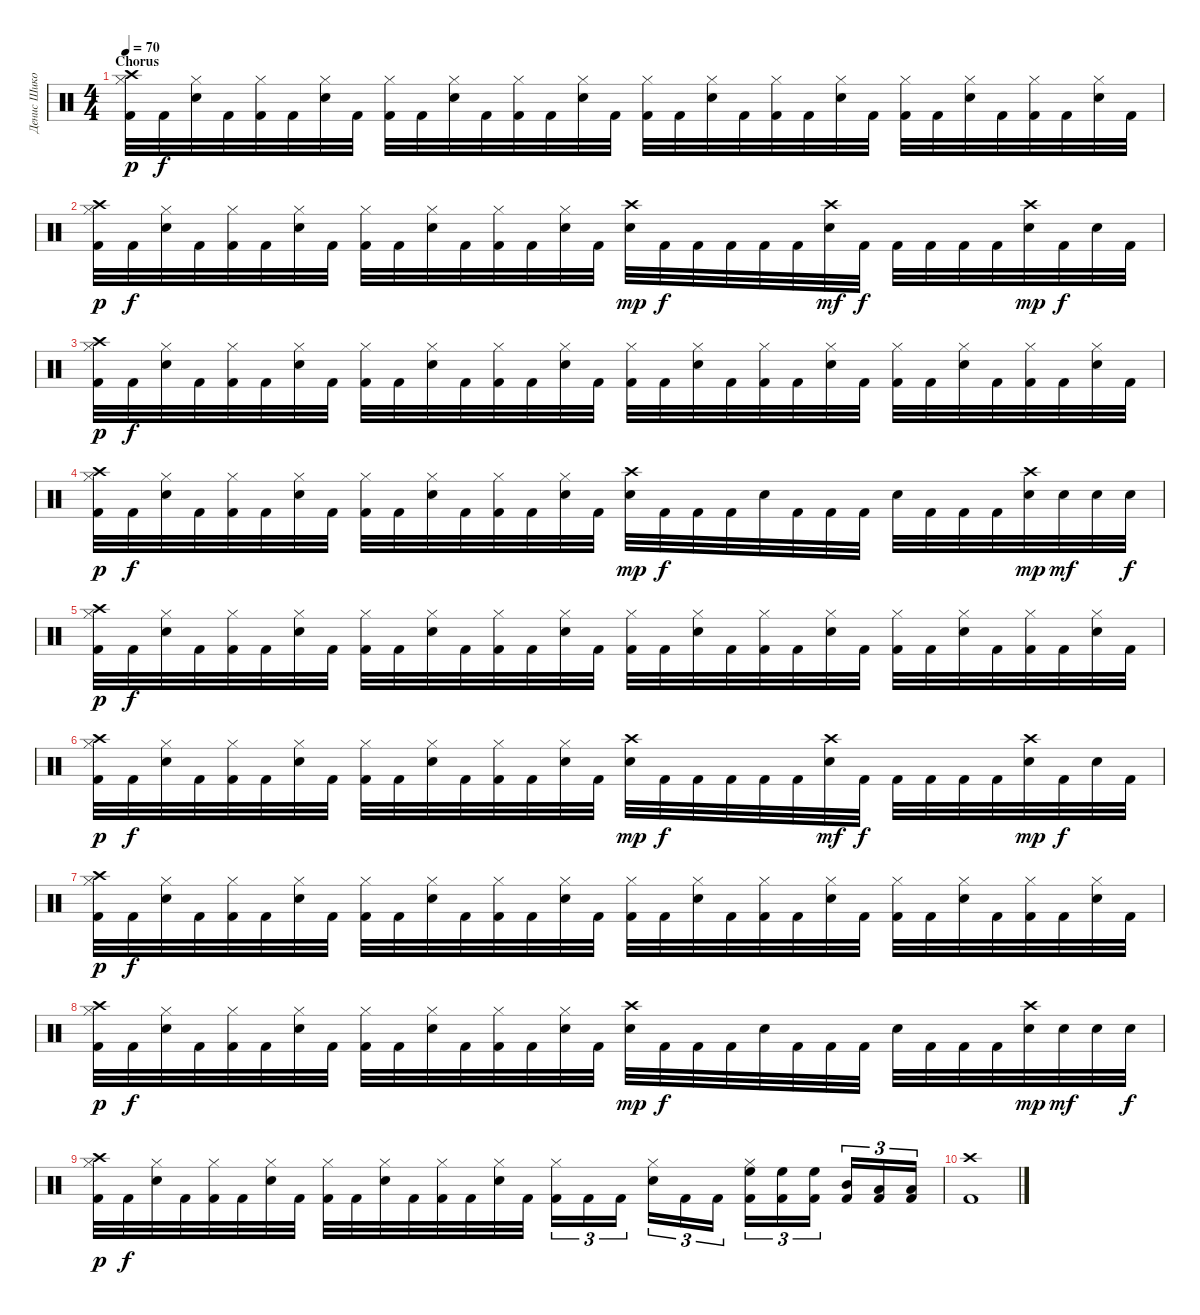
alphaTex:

\track ("Денис Шиков" "Денис Шико") {instrument percussion}
\staff {score}
\articulation defaults
\ts (4 4)
\section ("" "Chorus")
\tempo 70
\clef neutral
\ks c
("Crash high (hit)" "Hi-Hat (closed)" "Kick (hit) 2").32{dy p} "Kick (hit) 2".32{dy f} ("Hi-Hat (closed)" "Electric Snare (hit)").32 "Kick (hit) 2".32 ("Hi-Hat (closed)" "Kick (hit) 2").32 "Kick (hit) 2".32 ("Hi-Hat (closed)" "Electric Snare (hit)").32 "Kick (hit) 2".32 ("Hi-Hat (closed)" "Kick (hit) 2").32 "Kick (hit) 2".32 ("Hi-Hat (closed)" "Electric Snare (hit)").32 "Kick (hit) 2".32 ("Hi-Hat (closed)" "Kick (hit) 2").32 "Kick (hit) 2".32 ("Hi-Hat (closed)" "Electric Snare (hit)").32 "Kick (hit) 2".32 ("Hi-Hat (closed)" "Kick (hit) 2").32 "Kick (hit) 2".32 ("Hi-Hat (closed)" "Electric Snare (hit)").32 "Kick (hit) 2".32 ("Hi-Hat (closed)" "Kick (hit) 2").32 "Kick (hit) 2".32 ("Hi-Hat (closed)" "Electric Snare (hit)").32 "Kick (hit) 2".32 ("Hi-Hat (closed)" "Kick (hit) 2").32 "Kick (hit) 2".32 ("Hi-Hat (closed)" "Electric Snare (hit)").32 "Kick (hit) 2".32 ("Hi-Hat (closed)" "Kick (hit) 2").32 "Kick (hit) 2".32 ("Hi-Hat (closed)" "Electric Snare (hit)").32 "Kick (hit) 2".32 |
("Crash high (hit)" "Hi-Hat (closed)" "Kick (hit) 2").32{dy p} "Kick (hit) 2".32{dy f} ("Hi-Hat (closed)" "Electric Snare (hit)").32 "Kick (hit) 2".32 ("Hi-Hat (closed)" "Kick (hit) 2").32 "Kick (hit) 2".32 ("Hi-Hat (closed)" "Electric Snare (hit)").32 "Kick (hit) 2".32 ("Hi-Hat (closed)" "Kick (hit) 2").32 "Kick (hit) 2".32 ("Hi-Hat (closed)" "Electric Snare (hit)").32 "Kick (hit) 2".32 ("Hi-Hat (closed)" "Kick (hit) 2").32 "Kick (hit) 2".32 ("Hi-Hat (closed)" "Electric Snare (hit)").32 "Kick (hit) 2".32 ("Crash high (hit)" "Electric Snare (hit)").32{dy mp} "Kick (hit) 2".32{dy f} "Kick (hit) 2".32 "Kick (hit) 2".32 "Kick (hit) 2".32 "Kick (hit) 2".32 ("Crash high (hit)" "Electric Snare (hit)").32{dy mf} "Kick (hit) 2".32{dy f} "Kick (hit) 2".32 "Kick (hit) 2".32 "Kick (hit) 2".32 "Kick (hit) 2".32 ("Crash high (hit)" "Electric Snare (hit)").32{dy mp} "Kick (hit) 2".32{dy f} "Electric Snare (hit)".32 "Kick (hit) 2".32 |
("Crash high (hit)" "Hi-Hat (closed)" "Kick (hit) 2").32{dy p} "Kick (hit) 2".32{dy f} ("Hi-Hat (closed)" "Electric Snare (hit)").32 "Kick (hit) 2".32 ("Hi-Hat (closed)" "Kick (hit) 2").32 "Kick (hit) 2".32 ("Hi-Hat (closed)" "Electric Snare (hit)").32 "Kick (hit) 2".32 ("Hi-Hat (closed)" "Kick (hit) 2").32 "Kick (hit) 2".32 ("Hi-Hat (closed)" "Electric Snare (hit)").32 "Kick (hit) 2".32 ("Hi-Hat (closed)" "Kick (hit) 2").32 "Kick (hit) 2".32 ("Hi-Hat (closed)" "Electric Snare (hit)").32 "Kick (hit) 2".32 ("Hi-Hat (closed)" "Kick (hit) 2").32 "Kick (hit) 2".32 ("Hi-Hat (closed)" "Electric Snare (hit)").32 "Kick (hit) 2".32 ("Hi-Hat (closed)" "Kick (hit) 2").32 "Kick (hit) 2".32 ("Hi-Hat (closed)" "Electric Snare (hit)").32 "Kick (hit) 2".32 ("Hi-Hat (closed)" "Kick (hit) 2").32 "Kick (hit) 2".32 ("Hi-Hat (closed)" "Electric Snare (hit)").32 "Kick (hit) 2".32 ("Hi-Hat (closed)" "Kick (hit) 2").32 "Kick (hit) 2".32 ("Hi-Hat (closed)" "Electric Snare (hit)").32 "Kick (hit) 2".32 |
("Crash high (hit)" "Hi-Hat (closed)" "Kick (hit) 2").32{dy p} "Kick (hit) 2".32{dy f} ("Hi-Hat (closed)" "Electric Snare (hit)").32 "Kick (hit) 2".32 ("Hi-Hat (closed)" "Kick (hit) 2").32 "Kick (hit) 2".32 ("Hi-Hat (closed)" "Electric Snare (hit)").32 "Kick (hit) 2".32 ("Hi-Hat (closed)" "Kick (hit) 2").32 "Kick (hit) 2".32 ("Hi-Hat (closed)" "Electric Snare (hit)").32 "Kick (hit) 2".32 ("Hi-Hat (closed)" "Kick (hit) 2").32 "Kick (hit) 2".32 ("Hi-Hat (closed)" "Electric Snare (hit)").32 "Kick (hit) 2".32 ("Crash high (hit)" "Electric Snare (hit)").32{dy mp} "Kick (hit) 2".32{dy f} "Kick (hit) 2".32 "Kick (hit) 2".32 "Electric Snare (hit)".32 "Kick (hit) 2".32 "Kick (hit) 2".32 "Kick (hit) 2".32 "Electric Snare (hit)".32 "Kick (hit) 2".32 "Kick (hit) 2".32 "Kick (hit) 2".32 ("Crash high (hit)" "Electric Snare (hit)").32{dy mp} "Electric Snare (hit)".32{dy mf} "Electric Snare (hit)".32 "Electric Snare (hit)".32{dy f} |
("Crash high (hit)" "Hi-Hat (closed)" "Kick (hit) 2").32{dy p} "Kick (hit) 2".32{dy f} ("Hi-Hat (closed)" "Electric Snare (hit)").32 "Kick (hit) 2".32 ("Hi-Hat (closed)" "Kick (hit) 2").32 "Kick (hit) 2".32 ("Hi-Hat (closed)" "Electric Snare (hit)").32 "Kick (hit) 2".32 ("Hi-Hat (closed)" "Kick (hit) 2").32 "Kick (hit) 2".32 ("Hi-Hat (closed)" "Electric Snare (hit)").32 "Kick (hit) 2".32 ("Hi-Hat (closed)" "Kick (hit) 2").32 "Kick (hit) 2".32 ("Hi-Hat (closed)" "Electric Snare (hit)").32 "Kick (hit) 2".32 ("Hi-Hat (closed)" "Kick (hit) 2").32 "Kick (hit) 2".32 ("Hi-Hat (closed)" "Electric Snare (hit)").32 "Kick (hit) 2".32 ("Hi-Hat (closed)" "Kick (hit) 2").32 "Kick (hit) 2".32 ("Hi-Hat (closed)" "Electric Snare (hit)").32 "Kick (hit) 2".32 ("Hi-Hat (closed)" "Kick (hit) 2").32 "Kick (hit) 2".32 ("Hi-Hat (closed)" "Electric Snare (hit)").32 "Kick (hit) 2".32 ("Hi-Hat (closed)" "Kick (hit) 2").32 "Kick (hit) 2".32 ("Hi-Hat (closed)" "Electric Snare (hit)").32 "Kick (hit) 2".32 |
("Crash high (hit)" "Hi-Hat (closed)" "Kick (hit) 2").32{dy p} "Kick (hit) 2".32{dy f} ("Hi-Hat (closed)" "Electric Snare (hit)").32 "Kick (hit) 2".32 ("Hi-Hat (closed)" "Kick (hit) 2").32 "Kick (hit) 2".32 ("Hi-Hat (closed)" "Electric Snare (hit)").32 "Kick (hit) 2".32 ("Hi-Hat (closed)" "Kick (hit) 2").32 "Kick (hit) 2".32 ("Hi-Hat (closed)" "Electric Snare (hit)").32 "Kick (hit) 2".32 ("Hi-Hat (closed)" "Kick (hit) 2").32 "Kick (hit) 2".32 ("Hi-Hat (closed)" "Electric Snare (hit)").32 "Kick (hit) 2".32 ("Crash high (hit)" "Electric Snare (hit)").32{dy mp} "Kick (hit) 2".32{dy f} "Kick (hit) 2".32 "Kick (hit) 2".32 "Kick (hit) 2".32 "Kick (hit) 2".32 ("Crash high (hit)" "Electric Snare (hit)").32{dy mf} "Kick (hit) 2".32{dy f} "Kick (hit) 2".32 "Kick (hit) 2".32 "Kick (hit) 2".32 "Kick (hit) 2".32 ("Crash high (hit)" "Electric Snare (hit)").32{dy mp} "Kick (hit) 2".32{dy f} "Electric Snare (hit)".32 "Kick (hit) 2".32 |
("Crash high (hit)" "Hi-Hat (closed)" "Kick (hit) 2").32{dy p} "Kick (hit) 2".32{dy f} ("Hi-Hat (closed)" "Electric Snare (hit)").32 "Kick (hit) 2".32 ("Hi-Hat (closed)" "Kick (hit) 2").32 "Kick (hit) 2".32 ("Hi-Hat (closed)" "Electric Snare (hit)").32 "Kick (hit) 2".32 ("Hi-Hat (closed)" "Kick (hit) 2").32 "Kick (hit) 2".32 ("Hi-Hat (closed)" "Electric Snare (hit)").32 "Kick (hit) 2".32 ("Hi-Hat (closed)" "Kick (hit) 2").32 "Kick (hit) 2".32 ("Hi-Hat (closed)" "Electric Snare (hit)").32 "Kick (hit) 2".32 ("Hi-Hat (closed)" "Kick (hit) 2").32 "Kick (hit) 2".32 ("Hi-Hat (closed)" "Electric Snare (hit)").32 "Kick (hit) 2".32 ("Hi-Hat (closed)" "Kick (hit) 2").32 "Kick (hit) 2".32 ("Hi-Hat (closed)" "Electric Snare (hit)").32 "Kick (hit) 2".32 ("Hi-Hat (closed)" "Kick (hit) 2").32 "Kick (hit) 2".32 ("Hi-Hat (closed)" "Electric Snare (hit)").32 "Kick (hit) 2".32 ("Hi-Hat (closed)" "Kick (hit) 2").32 "Kick (hit) 2".32 ("Hi-Hat (closed)" "Electric Snare (hit)").32 "Kick (hit) 2".32 |
("Crash high (hit)" "Hi-Hat (closed)" "Kick (hit) 2").32{dy p} "Kick (hit) 2".32{dy f} ("Hi-Hat (closed)" "Electric Snare (hit)").32 "Kick (hit) 2".32 ("Hi-Hat (closed)" "Kick (hit) 2").32 "Kick (hit) 2".32 ("Hi-Hat (closed)" "Electric Snare (hit)").32 "Kick (hit) 2".32 ("Hi-Hat (closed)" "Kick (hit) 2").32 "Kick (hit) 2".32 ("Hi-Hat (closed)" "Electric Snare (hit)").32 "Kick (hit) 2".32 ("Hi-Hat (closed)" "Kick (hit) 2").32 "Kick (hit) 2".32 ("Hi-Hat (closed)" "Electric Snare (hit)").32 "Kick (hit) 2".32 ("Crash high (hit)" "Electric Snare (hit)").32{dy mp} "Kick (hit) 2".32{dy f} "Kick (hit) 2".32 "Kick (hit) 2".32 "Electric Snare (hit)".32 "Kick (hit) 2".32 "Kick (hit) 2".32 "Kick (hit) 2".32 "Electric Snare (hit)".32 "Kick (hit) 2".32 "Kick (hit) 2".32 "Kick (hit) 2".32 ("Crash high (hit)" "Electric Snare (hit)").32{dy mp} "Electric Snare (hit)".32{dy mf} "Electric Snare (hit)".32 "Electric Snare (hit)".32{dy f} |
("Crash high (hit)" "Hi-Hat (closed)" "Kick (hit) 2").32{dy p} "Kick (hit) 2".32{dy f} ("Hi-Hat (closed)" "Electric Snare (hit)").32 "Kick (hit) 2".32 ("Hi-Hat (closed)" "Kick (hit) 2").32 "Kick (hit) 2".32 ("Hi-Hat (closed)" "Electric Snare (hit)").32 "Kick (hit) 2".32 ("Hi-Hat (closed)" "Kick (hit) 2").32 "Kick (hit) 2".32 ("Hi-Hat (closed)" "Electric Snare (hit)").32 "Kick (hit) 2".32 ("Hi-Hat (closed)" "Kick (hit) 2").32 "Kick (hit) 2".32 ("Hi-Hat (closed)" "Electric Snare (hit)").32 "Kick (hit) 2".32 ("Hi-Hat (closed)" "Kick (hit) 2").16{tu (3 2)} "Kick (hit) 2".16{tu (3 2)} "Kick (hit) 2".16{tu (3 2)} ("Hi-Hat (closed)" "Electric Snare (hit)").16{tu (3 2)} "Kick (hit) 2".16{tu (3 2)} "Kick (hit) 2".16{tu (3 2)} ("Hi-Hat (closed)" "High Floor Tom (hit)" "Kick (hit) 2").16{tu (3 2)} ("High Floor Tom (hit)" "Kick (hit) 2").16{tu (3 2)} ("High Floor Tom (hit)" "Kick (hit) 2").16{tu (3 2)} ("Mid Tom (hit)" "Kick (hit) 2").16{tu (3 2)} ("Low Tom (hit)" "Kick (hit) 2").16{tu (3 2)} ("Low Floor Tom (hit)" "Kick (hit) 2").16{tu (3 2)} |
("Crash high (hit)" "Kick (hit) 2").1
